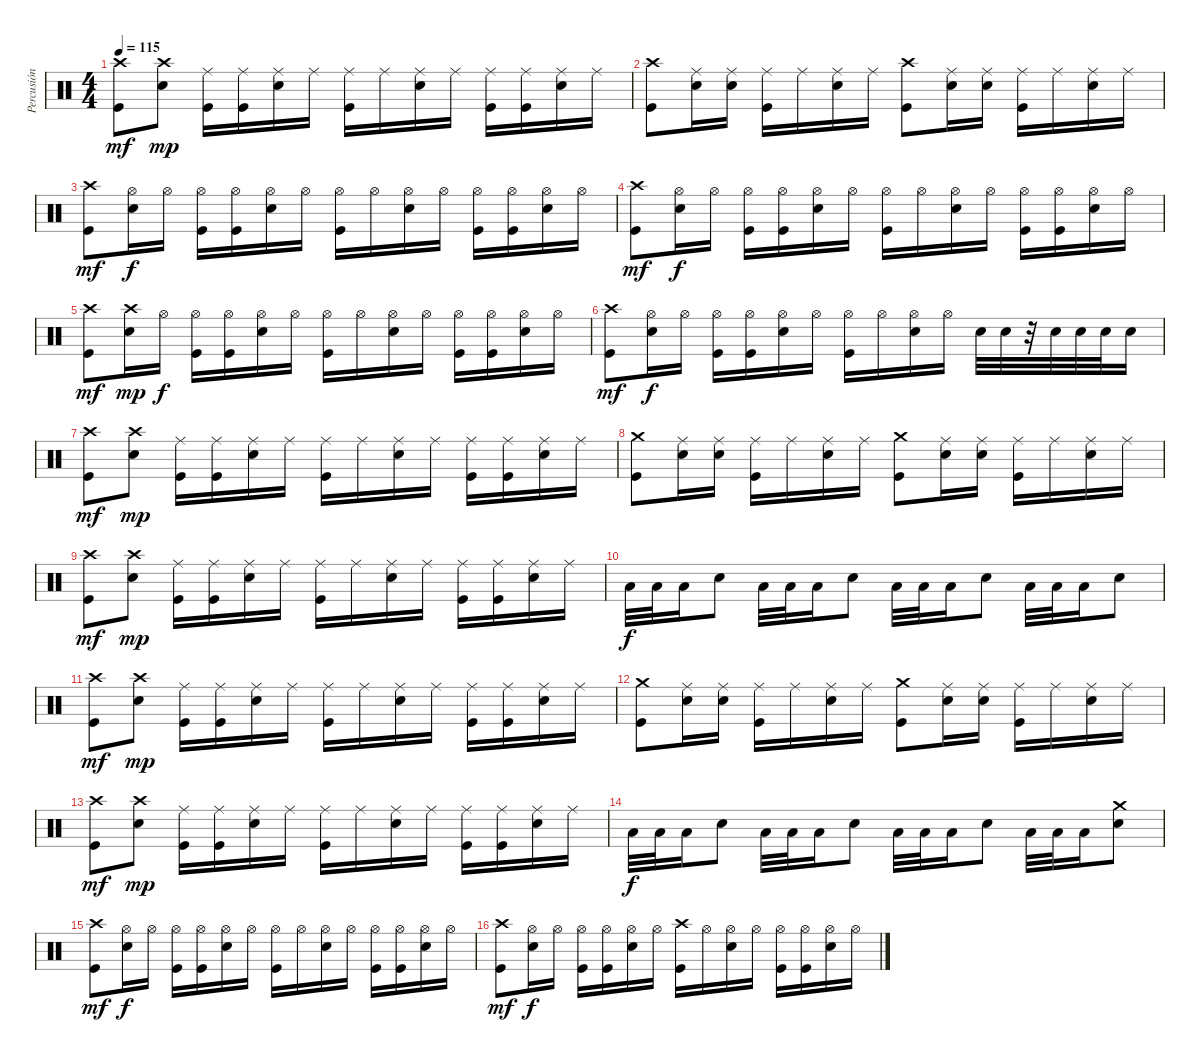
\track ("Percusión" "Percusión") {instrument percussion}
\staff {score}
\articulation defaults
\ts (4 4)
\tempo 115
\clef neutral
\ks c
("Kick (hit)" "Crash high (hit)").8{dy mf} ("Snare (hit) 2" "Crash high (hit)").8{dy mp} ("Kick (hit)" "Ride (middle)").16 ("Kick (hit)" "Ride (middle)").16 ("Snare (hit) 2" "Ride (middle)").16 "Ride (middle)".16 ("Kick (hit)" "Ride (middle)").16 "Ride (middle)".16 ("Snare (hit) 2" "Ride (middle)").16 "Ride (middle)".16 ("Kick (hit)" "Ride (middle)").16 ("Kick (hit)" "Ride (middle)").16 ("Snare (hit) 2" "Ride (middle)").16 "Ride (middle)".16 |
("Kick (hit)" "Crash high (hit)").8 ("Snare (hit) 2" "Ride (middle)").16 ("Snare (hit) 2" "Ride (middle)").16 ("Kick (hit)" "Ride (middle)").16 "Ride (middle)".16 ("Snare (hit) 2" "Ride (middle)").16 "Ride (middle)".16 ("Kick (hit)" "Crash high (hit)").8 ("Snare (hit) 2" "Ride (middle)").16 ("Snare (hit) 2" "Ride (middle)").16 ("Kick (hit)" "Ride (middle)").16 "Ride (middle)".16 ("Snare (hit) 2" "Ride (middle)").16 "Ride (middle)".16 |
("Kick (hit)" "Crash high (hit)").8{dy mf} ("Snare (hit) 2" "Hi-Hat (open)").16{dy f} "Hi-Hat (open)".16 ("Kick (hit)" "Hi-Hat (open)").16 ("Kick (hit)" "Hi-Hat (open)").16 ("Snare (hit) 2" "Hi-Hat (open)").16 "Hi-Hat (open)".16 ("Kick (hit)" "Hi-Hat (open)").16 "Hi-Hat (open)".16 ("Snare (hit) 2" "Hi-Hat (open)").16 "Hi-Hat (open)".16 ("Kick (hit)" "Hi-Hat (open)").16 ("Kick (hit)" "Hi-Hat (open)").16 ("Snare (hit) 2" "Hi-Hat (open)").16 "Hi-Hat (open)".16 |
("Kick (hit)" "Crash high (hit)").8{dy mf} ("Snare (hit) 2" "Hi-Hat (open)").16{dy f} "Hi-Hat (open)".16 ("Kick (hit)" "Hi-Hat (open)").16 ("Kick (hit)" "Hi-Hat (open)").16 ("Snare (hit) 2" "Hi-Hat (open)").16 "Hi-Hat (open)".16 ("Kick (hit)" "Hi-Hat (open)").16 "Hi-Hat (open)".16 ("Snare (hit) 2" "Hi-Hat (open)").16 "Hi-Hat (open)".16 ("Kick (hit)" "Hi-Hat (open)").16 ("Kick (hit)" "Hi-Hat (open)").16 ("Snare (hit) 2" "Hi-Hat (open)").16 "Hi-Hat (open)".16 |
("Kick (hit)" "Crash high (hit)").8{dy mf} ("Snare (hit) 2" "Crash high (hit)").16{dy mp} "Hi-Hat (open)".16{dy f} ("Kick (hit)" "Hi-Hat (open)").16 ("Kick (hit)" "Hi-Hat (open)").16 ("Snare (hit) 2" "Hi-Hat (open)").16 "Hi-Hat (open)".16 ("Kick (hit)" "Hi-Hat (open)").16 "Hi-Hat (open)".16 ("Snare (hit) 2" "Hi-Hat (open)").16 "Hi-Hat (open)".16 ("Kick (hit)" "Hi-Hat (open)").16 ("Kick (hit)" "Hi-Hat (open)").16 ("Snare (hit) 2" "Hi-Hat (open)").16 "Hi-Hat (open)".16 |
("Kick (hit)" "Crash high (hit)").8{dy mf} ("Snare (hit) 2" "Hi-Hat (open)").16{dy f} "Hi-Hat (open)".16 ("Kick (hit)" "Hi-Hat (open)").16 ("Kick (hit)" "Hi-Hat (open)").16 ("Snare (hit) 2" "Hi-Hat (open)").16 "Hi-Hat (open)".16 ("Kick (hit)" "Hi-Hat (open)").16 "Hi-Hat (open)".16 ("Snare (hit) 2" "Hi-Hat (open)").16 "Hi-Hat (open)".16 "Snare (hit) 2".32 "Snare (hit) 2".32 r.32 "Snare (hit) 2".32 "Snare (hit) 2".32 "Snare (hit) 2".32 "Snare (hit) 2".16 |
("Kick (hit)" "Crash high (hit)").8{dy mf} ("Snare (hit) 2" "Crash high (hit)").8{dy mp} ("Kick (hit)" "Ride (middle)").16 ("Kick (hit)" "Ride (middle)").16 ("Snare (hit) 2" "Ride (middle)").16 "Ride (middle)".16 ("Kick (hit)" "Ride (middle)").16 "Ride (middle)".16 ("Snare (hit) 2" "Ride (middle)").16 "Ride (middle)".16 ("Kick (hit)" "Ride (middle)").16 ("Kick (hit)" "Ride (middle)").16 ("Snare (hit) 2" "Ride (middle)").16 "Ride (middle)".16 |
("Kick (hit)" "Crash medium (hit)").8 ("Snare (hit) 2" "Ride (middle)").16 ("Snare (hit) 2" "Ride (middle)").16 ("Kick (hit)" "Ride (middle)").16 "Ride (middle)".16 ("Snare (hit) 2" "Ride (middle)").16 "Ride (middle)".16 ("Kick (hit)" "Crash medium (hit)").8 ("Snare (hit) 2" "Ride (middle)").16 ("Snare (hit) 2" "Ride (middle)").16 ("Kick (hit)" "Ride (middle)").16 "Ride (middle)".16 ("Snare (hit) 2" "Ride (middle)").16 "Ride (middle)".16 |
("Kick (hit)" "Crash high (hit)").8{dy mf} ("Snare (hit) 2" "Crash high (hit)").8{dy mp} ("Kick (hit)" "Ride (middle)").16 ("Kick (hit)" "Ride (middle)").16 ("Snare (hit) 2" "Ride (middle)").16 "Ride (middle)".16 ("Kick (hit)" "Ride (middle)").16 "Ride (middle)".16 ("Snare (hit) 2" "Ride (middle)").16 "Ride (middle)".16 ("Kick (hit)" "Ride (middle)").16 ("Kick (hit)" "Ride (middle)").16 ("Snare (hit) 2" "Ride (middle)").16 "Ride (middle)".16 |
"Low Floor Tom (hit)".32{dy f} "Low Floor Tom (hit)".32 "Low Floor Tom (hit)".16 "Snare (hit) 2".8 "Low Floor Tom (hit)".32 "Low Floor Tom (hit)".32 "Low Floor Tom (hit)".16 "Snare (hit) 2".8 "Low Floor Tom (hit)".32 "Low Floor Tom (hit)".32 "Low Floor Tom (hit)".16 "Snare (hit) 2".8 "Low Floor Tom (hit)".32 "Low Floor Tom (hit)".32 "Low Floor Tom (hit)".16 "Snare (hit) 2".8 |
("Kick (hit)" "Crash high (hit)").8{dy mf} ("Snare (hit) 2" "Crash high (hit)").8{dy mp} ("Kick (hit)" "Ride (middle)").16 ("Kick (hit)" "Ride (middle)").16 ("Snare (hit) 2" "Ride (middle)").16 "Ride (middle)".16 ("Kick (hit)" "Ride (middle)").16 "Ride (middle)".16 ("Snare (hit) 2" "Ride (middle)").16 "Ride (middle)".16 ("Kick (hit)" "Ride (middle)").16 ("Kick (hit)" "Ride (middle)").16 ("Snare (hit) 2" "Ride (middle)").16 "Ride (middle)".16 |
("Kick (hit)" "Crash medium (hit)").8 ("Snare (hit) 2" "Ride (middle)").16 ("Snare (hit) 2" "Ride (middle)").16 ("Kick (hit)" "Ride (middle)").16 "Ride (middle)".16 ("Snare (hit) 2" "Ride (middle)").16 "Ride (middle)".16 ("Kick (hit)" "Crash medium (hit)").8 ("Snare (hit) 2" "Ride (middle)").16 ("Snare (hit) 2" "Ride (middle)").16 ("Kick (hit)" "Ride (middle)").16 "Ride (middle)".16 ("Snare (hit) 2" "Ride (middle)").16 "Ride (middle)".16 |
("Kick (hit)" "Crash high (hit)").8{dy mf} ("Snare (hit) 2" "Crash high (hit)").8{dy mp} ("Kick (hit)" "Ride (middle)").16 ("Kick (hit)" "Ride (middle)").16 ("Snare (hit) 2" "Ride (middle)").16 "Ride (middle)".16 ("Kick (hit)" "Ride (middle)").16 "Ride (middle)".16 ("Snare (hit) 2" "Ride (middle)").16 "Ride (middle)".16 ("Kick (hit)" "Ride (middle)").16 ("Kick (hit)" "Ride (middle)").16 ("Snare (hit) 2" "Ride (middle)").16 "Ride (middle)".16 |
"Low Floor Tom (hit)".32{dy f} "Low Floor Tom (hit)".32 "Low Floor Tom (hit)".16 "Snare (hit) 2".8 "Low Floor Tom (hit)".32 "Low Floor Tom (hit)".32 "Low Floor Tom (hit)".16 "Snare (hit) 2".8 "Low Floor Tom (hit)".32 "Low Floor Tom (hit)".32 "Low Floor Tom (hit)".16 "Snare (hit) 2".8 "Low Floor Tom (hit)".32 "Low Floor Tom (hit)".32 "Low Floor Tom (hit)".16 ("Crash medium (hit)" "Snare (hit) 2").8 |
("Kick (hit)" "Crash high (hit)").8{dy mf} ("Snare (hit) 2" "Hi-Hat (open)").16{dy f} "Hi-Hat (open)".16 ("Kick (hit)" "Hi-Hat (open)").16 ("Kick (hit)" "Hi-Hat (open)").16 ("Snare (hit) 2" "Hi-Hat (open)").16 "Hi-Hat (open)".16 ("Kick (hit)" "Hi-Hat (open)").16 "Hi-Hat (open)".16 ("Snare (hit) 2" "Hi-Hat (open)").16 "Hi-Hat (open)".16 ("Kick (hit)" "Hi-Hat (open)").16 ("Kick (hit)" "Hi-Hat (open)").16 ("Snare (hit) 2" "Hi-Hat (open)").16 "Hi-Hat (open)".16 |
("Kick (hit)" "Crash high (hit)").8{dy mf} ("Snare (hit) 2" "Hi-Hat (open)").16{dy f} "Hi-Hat (open)".16 ("Kick (hit)" "Hi-Hat (open)").16 ("Kick (hit)" "Hi-Hat (open)").16 ("Snare (hit) 2" "Hi-Hat (open)").16 "Hi-Hat (open)".16 ("Kick (hit)" "Crash high (hit)").16 "Hi-Hat (open)".16 ("Snare (hit) 2" "Hi-Hat (open)").16 "Hi-Hat (open)".16 ("Kick (hit)" "Hi-Hat (open)").16 ("Kick (hit)" "Hi-Hat (open)").16 ("Snare (hit) 2" "Hi-Hat (open)").16 "Hi-Hat (open)".16
